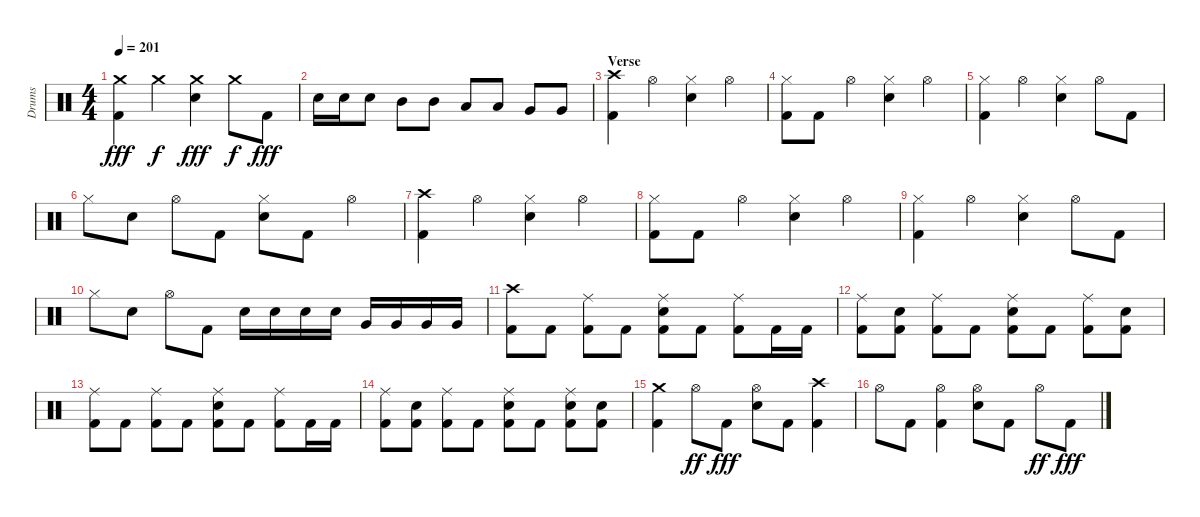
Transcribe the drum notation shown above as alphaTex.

\track ("Drums" "Drums") {instrument percussion}
\staff {score}
\articulation defaults
\ts (4 4)
\tempo 201
\clef neutral
\ks aminor
("Kick (hit) 2" "Crash medium (hit)").4{dy fff} "Crash medium (hit)".4{dy f} ("Snare (hit) 2" "Crash medium (hit)").4{dy fff} "Crash medium (hit)".8{dy f} "Kick (hit) 2".8{dy fff} |
"Snare (hit) 2".16 "Snare (hit) 2".16 "Snare (hit) 2".8 "Mid Tom (hit)".8 "Mid Tom (hit)".8 "Low Tom (hit)".8 "Low Tom (hit)".8 "Very Low Tom (hit)".8 "Very Low Tom (hit)".8 |
\section ("" "Verse")
("Kick (hit) 2" "Crash high (hit)").4 "Hi-Hat (open)".4 ("Snare (hit) 2" "Hi-Hat (closed)").4 "Hi-Hat (open)".4 |
("Hi-Hat (closed)" "Kick (hit) 2").8 "Kick (hit) 2".8 "Hi-Hat (open)".4 ("Snare (hit) 2" "Hi-Hat (closed)").4 "Hi-Hat (open)".4 |
("Kick (hit) 2" "Hi-Hat (closed)").4 "Hi-Hat (open)".4 ("Snare (hit) 2" "Hi-Hat (closed)").4 "Hi-Hat (open)".8 "Kick (hit) 2".8 |
"Hi-Hat (closed)".8 "Snare (hit) 2".8 "Hi-Hat (open)".8 "Kick (hit) 2".8 ("Snare (hit) 2" "Hi-Hat (closed)").8 "Kick (hit) 2".8 "Hi-Hat (open)".4 |
("Kick (hit) 2" "Crash high (hit)").4 "Hi-Hat (open)".4 ("Snare (hit) 2" "Hi-Hat (closed)").4 "Hi-Hat (open)".4 |
("Kick (hit) 2" "Hi-Hat (closed)").8 "Kick (hit) 2".8 "Hi-Hat (open)".4 ("Snare (hit) 2" "Hi-Hat (closed)").4 "Hi-Hat (open)".4 |
("Kick (hit) 2" "Hi-Hat (closed)").4 "Hi-Hat (open)".4 ("Hi-Hat (closed)" "Snare (hit) 2").4 "Hi-Hat (open)".8 "Kick (hit) 2".8 |
"Hi-Hat (closed)".8 "Snare (hit) 2".8 "Hi-Hat (open)".8 "Kick (hit) 2".8 "Snare (hit) 2".16 "Snare (hit) 2".16 "Snare (hit) 2".16 "Snare (hit) 2".16 "Very Low Tom (hit)".16 "Very Low Tom (hit)".16 "Very Low Tom (hit)".16 "Very Low Tom (hit)".16 |
("Kick (hit) 2" "Crash high (hit)").8 "Kick (hit) 2".8 ("Ride (middle)" "Kick (hit) 2").8 "Kick (hit) 2".8 ("Kick (hit) 2" "Snare (hit) 2" "Ride (middle)").8 "Kick (hit) 2".8 ("Ride (middle)" "Kick (hit) 2").8 "Kick (hit) 2".16 "Kick (hit) 2".16 |
("Kick (hit) 2" "Ride (middle)").8 ("Snare (hit) 2" "Kick (hit) 2").8 ("Kick (hit) 2" "Ride (middle)").8 "Kick (hit) 2".8 ("Kick (hit) 2" "Snare (hit) 2" "Ride (middle)").8 "Kick (hit) 2".8 ("Ride (middle)" "Kick (hit) 2").8 ("Kick (hit) 2" "Snare (hit) 2").8 |
("Kick (hit) 2" "Ride (middle)").8 "Kick (hit) 2".8 ("Kick (hit) 2" "Ride (middle)").8 "Kick (hit) 2".8 ("Kick (hit) 2" "Snare (hit) 2" "Ride (middle)").8 "Kick (hit) 2".8 ("Ride (middle)" "Kick (hit) 2").8 "Kick (hit) 2".16 "Kick (hit) 2".16 |
("Ride (middle)" "Kick (hit) 2").8 ("Snare (hit) 2" "Kick (hit) 2").8 ("Ride (middle)" "Kick (hit) 2").8 "Kick (hit) 2".8 ("Kick (hit) 2" "Snare (hit) 2" "Ride (middle)").8 "Kick (hit) 2".8 ("Kick (hit) 2" "Ride (middle)" "Snare (hit) 2").8 ("Snare (hit) 2" "Kick (hit) 2").8 |
("Kick (hit) 2" "Crash medium (hit)").4 "Hi-Hat (open)".8{dy ff} "Kick (hit) 2".8{dy fff} ("Snare (hit) 2" "Hi-Hat (open)").8 "Kick (hit) 2".8 ("Crash high (hit)" "Kick (hit) 2").4 |
"Hi-Hat (open)".8 "Kick (hit) 2".8 ("Kick (hit) 2" "Hi-Hat (open)").4 ("Hi-Hat (open)" "Snare (hit) 2").8 "Kick (hit) 2".8 "Hi-Hat (open)".8{dy ff} "Kick (hit) 2".8{dy fff}
